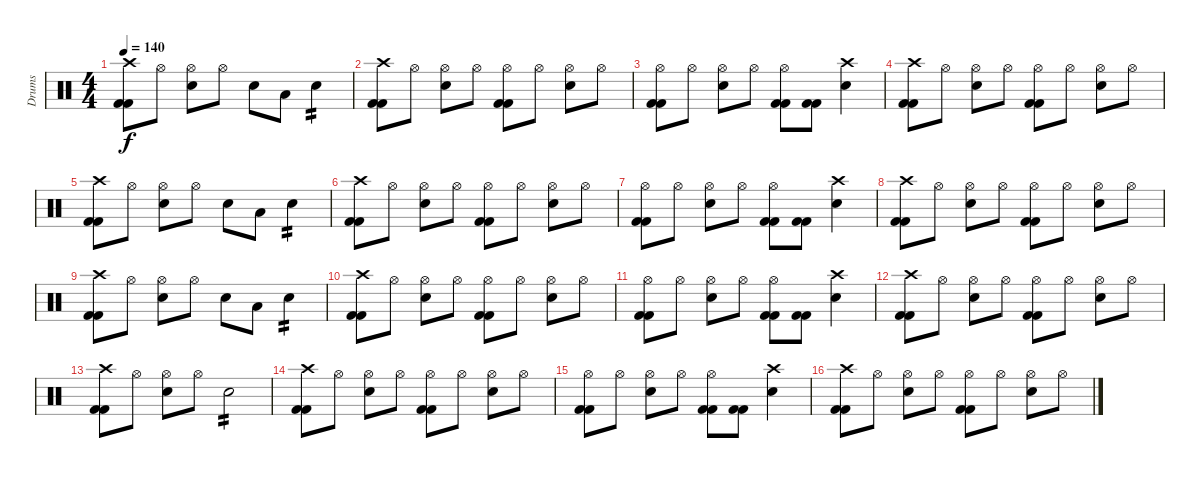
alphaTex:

\track ("Drums" "Drums") {instrument percussion}
\staff {score}
\articulation defaults
\ts (4 4)
\tempo 140
\clef neutral
\ks c
("Crash high (hit)" "Kick (hit) 2" "Kick (hit) 2").8{dy f} "Hi-Hat (open)".8 ("Electric Snare (hit)" "Hi-Hat (open)").8 "Hi-Hat (open)".8 "Electric Snare (hit)".8 "Low Tom (hit)".8 "Electric Snare (hit)".4{tp 2} |
("Crash high (hit)" "Kick (hit) 2" "Kick (hit) 2").8 "Hi-Hat (open)".8 ("Electric Snare (hit)" "Hi-Hat (open)").8 "Hi-Hat (open)".8 ("Hi-Hat (open)" "Kick (hit) 2" "Kick (hit) 2").8 "Hi-Hat (open)".8 ("Electric Snare (hit)" "Hi-Hat (open)").8 "Hi-Hat (open)".8 |
("Hi-Hat (open)" "Kick (hit) 2" "Kick (hit) 2").8 "Hi-Hat (open)".8 ("Electric Snare (hit)" "Hi-Hat (open)").8 "Hi-Hat (open)".8 ("Hi-Hat (open)" "Kick (hit) 2" "Kick (hit) 2").8 ("Kick (hit) 2" "Kick (hit) 2").8 ("Electric Snare (hit)" "Crash high (hit)").4 |
("Crash high (hit)" "Kick (hit) 2" "Kick (hit) 2").8 "Hi-Hat (open)".8 ("Electric Snare (hit)" "Hi-Hat (open)").8 "Hi-Hat (open)".8 ("Hi-Hat (open)" "Kick (hit) 2" "Kick (hit) 2").8 "Hi-Hat (open)".8 ("Electric Snare (hit)" "Hi-Hat (open)").8 "Hi-Hat (open)".8 |
("Crash high (hit)" "Kick (hit) 2" "Kick (hit) 2").8 "Hi-Hat (open)".8 ("Electric Snare (hit)" "Hi-Hat (open)").8 "Hi-Hat (open)".8 "Electric Snare (hit)".8 "Low Tom (hit)".8 "Electric Snare (hit)".4{tp 2} |
("Crash high (hit)" "Kick (hit) 2" "Kick (hit) 2").8 "Hi-Hat (open)".8 ("Electric Snare (hit)" "Hi-Hat (open)").8 "Hi-Hat (open)".8 ("Hi-Hat (open)" "Kick (hit) 2" "Kick (hit) 2").8 "Hi-Hat (open)".8 ("Electric Snare (hit)" "Hi-Hat (open)").8 "Hi-Hat (open)".8 |
("Hi-Hat (open)" "Kick (hit) 2" "Kick (hit) 2").8 "Hi-Hat (open)".8 ("Electric Snare (hit)" "Hi-Hat (open)").8 "Hi-Hat (open)".8 ("Hi-Hat (open)" "Kick (hit) 2" "Kick (hit) 2").8 ("Kick (hit) 2" "Kick (hit) 2").8 ("Electric Snare (hit)" "Crash high (hit)").4 |
("Crash high (hit)" "Kick (hit) 2" "Kick (hit) 2").8 "Hi-Hat (open)".8 ("Electric Snare (hit)" "Hi-Hat (open)").8 "Hi-Hat (open)".8 ("Hi-Hat (open)" "Kick (hit) 2" "Kick (hit) 2").8 "Hi-Hat (open)".8 ("Electric Snare (hit)" "Hi-Hat (open)").8 "Hi-Hat (open)".8 |
("Crash high (hit)" "Kick (hit) 2" "Kick (hit) 2").8 "Hi-Hat (open)".8 ("Electric Snare (hit)" "Hi-Hat (open)").8 "Hi-Hat (open)".8 "Electric Snare (hit)".8 "Low Tom (hit)".8 "Electric Snare (hit)".4{tp 2} |
("Crash high (hit)" "Kick (hit) 2" "Kick (hit) 2").8 "Hi-Hat (open)".8 ("Electric Snare (hit)" "Hi-Hat (open)").8 "Hi-Hat (open)".8 ("Hi-Hat (open)" "Kick (hit) 2" "Kick (hit) 2").8 "Hi-Hat (open)".8 ("Electric Snare (hit)" "Hi-Hat (open)").8 "Hi-Hat (open)".8 |
("Hi-Hat (open)" "Kick (hit) 2" "Kick (hit) 2").8 "Hi-Hat (open)".8 ("Electric Snare (hit)" "Hi-Hat (open)").8 "Hi-Hat (open)".8 ("Hi-Hat (open)" "Kick (hit) 2" "Kick (hit) 2").8 ("Kick (hit) 2" "Kick (hit) 2").8 ("Electric Snare (hit)" "Crash high (hit)").4 |
("Crash high (hit)" "Kick (hit) 2" "Kick (hit) 2").8 "Hi-Hat (open)".8 ("Electric Snare (hit)" "Hi-Hat (open)").8 "Hi-Hat (open)".8 ("Hi-Hat (open)" "Kick (hit) 2" "Kick (hit) 2").8 "Hi-Hat (open)".8 ("Electric Snare (hit)" "Hi-Hat (open)").8 "Hi-Hat (open)".8 |
("Crash high (hit)" "Kick (hit) 2" "Kick (hit) 2").8 "Hi-Hat (open)".8 ("Electric Snare (hit)" "Hi-Hat (open)").8 "Hi-Hat (open)".8 "Electric Snare (hit)".2{tp 2} |
("Crash high (hit)" "Kick (hit) 2" "Kick (hit) 2").8 "Hi-Hat (open)".8 ("Electric Snare (hit)" "Hi-Hat (open)").8 "Hi-Hat (open)".8 ("Hi-Hat (open)" "Kick (hit) 2" "Kick (hit) 2").8 "Hi-Hat (open)".8 ("Electric Snare (hit)" "Hi-Hat (open)").8 "Hi-Hat (open)".8 |
("Hi-Hat (open)" "Kick (hit) 2" "Kick (hit) 2").8 "Hi-Hat (open)".8 ("Electric Snare (hit)" "Hi-Hat (open)").8 "Hi-Hat (open)".8 ("Hi-Hat (open)" "Kick (hit) 2" "Kick (hit) 2").8 ("Kick (hit) 2" "Kick (hit) 2").8 ("Electric Snare (hit)" "Crash high (hit)").4 |
("Crash high (hit)" "Kick (hit) 2" "Kick (hit) 2").8 "Hi-Hat (open)".8 ("Electric Snare (hit)" "Hi-Hat (open)").8 "Hi-Hat (open)".8 ("Hi-Hat (open)" "Kick (hit) 2" "Kick (hit) 2").8 "Hi-Hat (open)".8 ("Electric Snare (hit)" "Hi-Hat (open)").8 "Hi-Hat (open)".8
